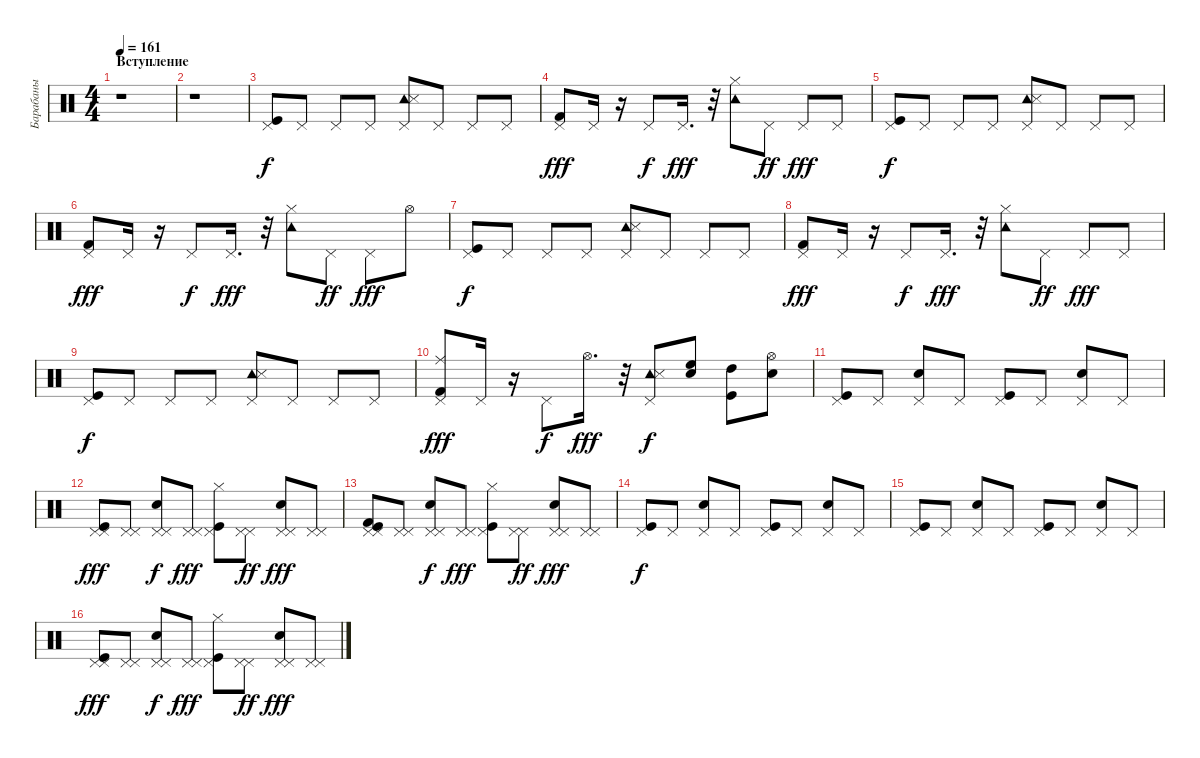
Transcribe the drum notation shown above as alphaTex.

\track ("Барабаны" "Барабаны") {instrument percussion}
\staff {score}
\articulation defaults
\ts (4 4)
\section ("" "Вступление")
\tempo 161
\clef neutral
\ks c
r.1{dy f} |
r.1 |
("Kick (hit)" "Pedal Hi-Hat (hit)").8 "Pedal Hi-Hat (hit)".8 "Pedal Hi-Hat (hit)".8 "Pedal Hi-Hat (hit)".8 ("Tambourine (hit)" "Snare (side stick) 3" "Pedal Hi-Hat (hit)").8 "Pedal Hi-Hat (hit)".8 "Pedal Hi-Hat (hit)".8 "Pedal Hi-Hat (hit)".8 |
("Kick (hit) 2" "Pedal Hi-Hat (hit)").8{dy fff} "Pedal Hi-Hat (hit)".16 r.16 "Pedal Hi-Hat (hit)".8{dy f} "Pedal Hi-Hat (hit)".16{d dy fff} r.32 ("Tambourine (hit)" "Hi-Hat (closed)").8 "Pedal Hi-Hat (hit)".8{dy ff} "Pedal Hi-Hat (hit)".8{dy fff} "Pedal Hi-Hat (hit)".8 |
("Kick (hit)" "Pedal Hi-Hat (hit)").8{dy f} "Pedal Hi-Hat (hit)".8 "Pedal Hi-Hat (hit)".8 "Pedal Hi-Hat (hit)".8 ("Tambourine (hit)" "Snare (side stick) 3" "Pedal Hi-Hat (hit)").8 "Pedal Hi-Hat (hit)".8 "Pedal Hi-Hat (hit)".8 "Pedal Hi-Hat (hit)".8 |
("Kick (hit) 2" "Pedal Hi-Hat (hit)").8{dy fff} "Pedal Hi-Hat (hit)".16 r.16 "Pedal Hi-Hat (hit)".8{dy f} "Pedal Hi-Hat (hit)".16{d dy fff} r.32 ("Tambourine (hit)" "Hi-Hat (closed)").8 "Pedal Hi-Hat (hit)".8{dy ff} "Pedal Hi-Hat (hit)".8{dy fff} "Hi-Hat (open)".8 |
("Kick (hit)" "Pedal Hi-Hat (hit)").8{dy f} "Pedal Hi-Hat (hit)".8 "Pedal Hi-Hat (hit)".8 "Pedal Hi-Hat (hit)".8 ("Tambourine (hit)" "Snare (side stick) 3" "Pedal Hi-Hat (hit)").8 "Pedal Hi-Hat (hit)".8 "Pedal Hi-Hat (hit)".8 "Pedal Hi-Hat (hit)".8 |
("Kick (hit) 2" "Pedal Hi-Hat (hit)").8{dy fff} "Pedal Hi-Hat (hit)".16 r.16 "Pedal Hi-Hat (hit)".8{dy f} "Pedal Hi-Hat (hit)".16{d dy fff} r.32 ("Tambourine (hit)" "Hi-Hat (closed)").8 "Pedal Hi-Hat (hit)".8{dy ff} "Pedal Hi-Hat (hit)".8{dy fff} "Pedal Hi-Hat (hit)".8 |
("Pedal Hi-Hat (hit)" "Kick (hit)").8{dy f} "Pedal Hi-Hat (hit)".8 "Pedal Hi-Hat (hit)".8 "Pedal Hi-Hat (hit)".8 ("Tambourine (hit)" "Snare (side stick) 3" "Pedal Hi-Hat (hit)").8 "Pedal Hi-Hat (hit)".8 "Pedal Hi-Hat (hit)".8 "Pedal Hi-Hat (hit)".8 |
("Ride (middle)" "Kick (hit) 2" "Pedal Hi-Hat (hit)").8{dy fff} "Pedal Hi-Hat (hit)".16 r.16 "Pedal Hi-Hat (hit)".8{dy f} "Hi-Hat (open)".16{d dy fff} r.32 ("Tambourine (hit)" "Snare (side stick) 3" "Pedal Hi-Hat (hit)").8{dy f} ("Snare (hit) 2" "High Floor Tom (hit)").8 ("Kick (hit)" "High Tom (hit)").8 ("Snare (hit) 2" "Hi-Hat (open)").8 |
("Kick (hit)" "Pedal Hi-Hat (hit)").8 "Pedal Hi-Hat (hit)".8 ("Snare (hit) 2" "Pedal Hi-Hat (hit)").8 "Pedal Hi-Hat (hit)".8 ("Kick (hit)" "Pedal Hi-Hat (hit)").8 "Pedal Hi-Hat (hit)".8 ("Snare (hit) 2" "Pedal Hi-Hat (hit)").8 "Pedal Hi-Hat (hit)".8 |
("Pedal Hi-Hat (hit)" "Kick (hit)" "Pedal Hi-Hat (hit)").8{dy fff} ("Pedal Hi-Hat (hit)" "Pedal Hi-Hat (hit)").8 ("Snare (hit) 2" "Pedal Hi-Hat (hit)" "Pedal Hi-Hat (hit)").8{dy f} ("Pedal Hi-Hat (hit)" "Pedal Hi-Hat (hit)").8{dy fff} ("Kick (hit)" "Hi-Hat (closed)" "Pedal Hi-Hat (hit)").8 ("Pedal Hi-Hat (hit)" "Pedal Hi-Hat (hit)").8{dy ff} ("Snare (hit) 2" "Pedal Hi-Hat (hit)" "Pedal Hi-Hat (hit)").8{dy fff} ("Pedal Hi-Hat (hit)" "Pedal Hi-Hat (hit)").8 |
("Pedal Hi-Hat (hit)" "Kick (hit)" "Kick (hit) 2" "Pedal Hi-Hat (hit)").8 ("Pedal Hi-Hat (hit)" "Pedal Hi-Hat (hit)").8 ("Snare (hit) 2" "Pedal Hi-Hat (hit)" "Pedal Hi-Hat (hit)").8{dy f} ("Pedal Hi-Hat (hit)" "Pedal Hi-Hat (hit)").8{dy fff} ("Kick (hit)" "Pedal Hi-Hat (hit)" "Hi-Hat (closed)").8 ("Pedal Hi-Hat (hit)" "Pedal Hi-Hat (hit)").8{dy ff} ("Snare (hit) 2" "Pedal Hi-Hat (hit)" "Pedal Hi-Hat (hit)").8{dy fff} ("Pedal Hi-Hat (hit)" "Pedal Hi-Hat (hit)").8 |
("Pedal Hi-Hat (hit)" "Kick (hit)").8{dy f} "Pedal Hi-Hat (hit)".8 ("Snare (hit) 2" "Pedal Hi-Hat (hit)").8 "Pedal Hi-Hat (hit)".8 ("Kick (hit)" "Pedal Hi-Hat (hit)").8 "Pedal Hi-Hat (hit)".8 ("Snare (hit) 2" "Pedal Hi-Hat (hit)").8 "Pedal Hi-Hat (hit)".8 |
("Kick (hit)" "Pedal Hi-Hat (hit)").8 "Pedal Hi-Hat (hit)".8 ("Snare (hit) 2" "Pedal Hi-Hat (hit)").8 "Pedal Hi-Hat (hit)".8 ("Kick (hit)" "Pedal Hi-Hat (hit)").8 "Pedal Hi-Hat (hit)".8 ("Snare (hit) 2" "Pedal Hi-Hat (hit)").8 "Pedal Hi-Hat (hit)".8 |
("Pedal Hi-Hat (hit)" "Kick (hit)" "Pedal Hi-Hat (hit)").8{dy fff} ("Pedal Hi-Hat (hit)" "Pedal Hi-Hat (hit)").8 ("Snare (hit) 2" "Pedal Hi-Hat (hit)" "Pedal Hi-Hat (hit)").8{dy f} ("Pedal Hi-Hat (hit)" "Pedal Hi-Hat (hit)").8{dy fff} ("Kick (hit)" "Hi-Hat (closed)" "Pedal Hi-Hat (hit)").8 ("Pedal Hi-Hat (hit)" "Pedal Hi-Hat (hit)").8{dy ff} ("Snare (hit) 2" "Pedal Hi-Hat (hit)" "Pedal Hi-Hat (hit)").8{dy fff} ("Pedal Hi-Hat (hit)" "Pedal Hi-Hat (hit)").8
